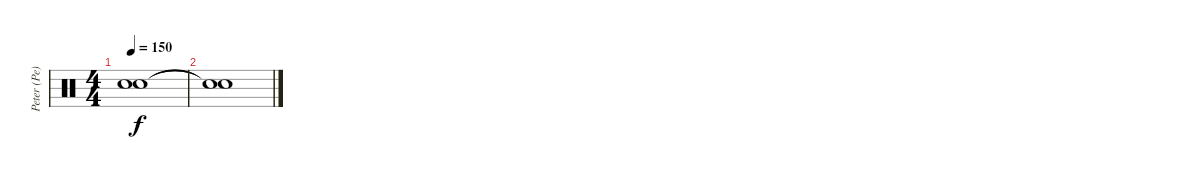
\track ("Peter (Pe) Schorowsky" "Peter (Pe)") {instrument percussion}
\staff {score}
\articulation defaults
\ts (4 4)
\tempo 150
\clef neutral
\ks c
("Snare (hit)"{t} "Snare (hit)"{t}).1{dy f} |
("Snare (hit)"{t} "Snare (hit)"{t}).1
